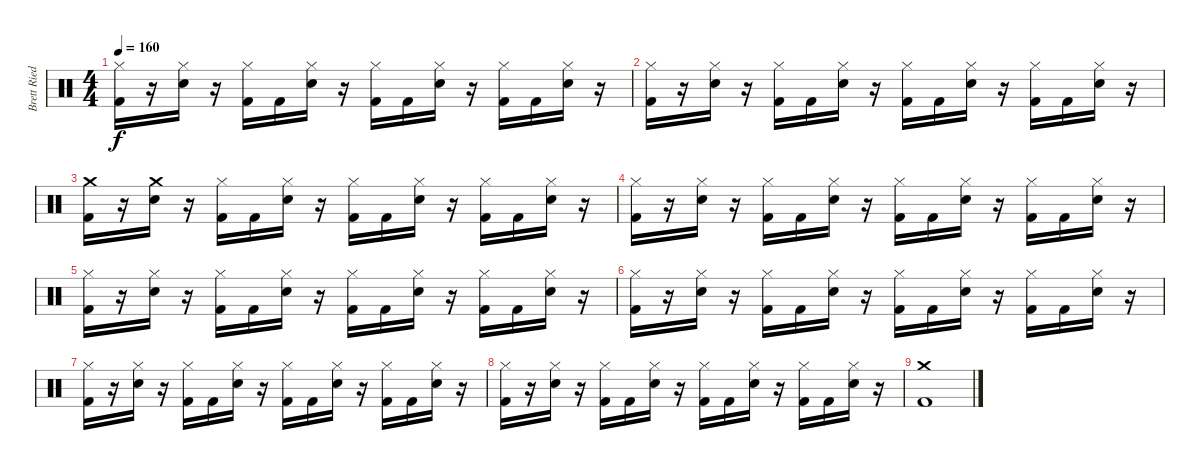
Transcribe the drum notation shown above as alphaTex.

\track ("Brett Ried" "Brett Ried") {instrument percussion}
\staff {score}
\articulation defaults
\ts (4 4)
\tempo 160
\clef neutral
\ks c
("Hi-Hat (closed)" "Kick (hit) 2").16{dy f} r.16 ("Hi-Hat (closed)" "Snare (hit) 2").16 r.16 ("Hi-Hat (closed)" "Kick (hit) 2").16 "Kick (hit) 2".16 ("Hi-Hat (closed)" "Snare (hit) 2").16 r.16 ("Hi-Hat (closed)" "Kick (hit) 2").16 "Kick (hit) 2".16 ("Hi-Hat (closed)" "Snare (hit) 2").16 r.16 ("Hi-Hat (closed)" "Kick (hit) 2").16 "Kick (hit) 2".16 ("Hi-Hat (closed)" "Snare (hit) 2").16 r.16 |
("Hi-Hat (closed)" "Kick (hit) 2").16 r.16 ("Hi-Hat (closed)" "Snare (hit) 2").16 r.16 ("Hi-Hat (closed)" "Kick (hit) 2").16 "Kick (hit) 2".16 ("Hi-Hat (closed)" "Snare (hit) 2").16 r.16 ("Hi-Hat (closed)" "Kick (hit) 2").16 "Kick (hit) 2".16 ("Hi-Hat (closed)" "Snare (hit) 2").16 r.16 ("Hi-Hat (closed)" "Kick (hit) 2").16 "Kick (hit) 2".16 ("Hi-Hat (closed)" "Snare (hit) 2").16 r.16 |
("Crash medium (hit)" "Kick (hit) 2").16 r.16 ("Crash medium (hit)" "Snare (hit) 2").16 r.16 ("Hi-Hat (closed)" "Kick (hit) 2").16 "Kick (hit) 2".16 ("Hi-Hat (closed)" "Snare (hit) 2").16 r.16 ("Hi-Hat (closed)" "Kick (hit) 2").16 "Kick (hit) 2".16 ("Hi-Hat (closed)" "Snare (hit) 2").16 r.16 ("Hi-Hat (closed)" "Kick (hit) 2").16 "Kick (hit) 2".16 ("Hi-Hat (closed)" "Snare (hit) 2").16 r.16 |
("Hi-Hat (closed)" "Kick (hit) 2").16 r.16 ("Hi-Hat (closed)" "Snare (hit) 2").16 r.16 ("Hi-Hat (closed)" "Kick (hit) 2").16 "Kick (hit) 2".16 ("Hi-Hat (closed)" "Snare (hit) 2").16 r.16 ("Hi-Hat (closed)" "Kick (hit) 2").16 "Kick (hit) 2".16 ("Hi-Hat (closed)" "Snare (hit) 2").16 r.16 ("Hi-Hat (closed)" "Kick (hit) 2").16 "Kick (hit) 2".16 ("Hi-Hat (closed)" "Snare (hit) 2").16 r.16 |
("Hi-Hat (closed)" "Kick (hit) 2").16 r.16 ("Hi-Hat (closed)" "Snare (hit) 2").16 r.16 ("Hi-Hat (closed)" "Kick (hit) 2").16 "Kick (hit) 2".16 ("Hi-Hat (closed)" "Snare (hit) 2").16 r.16 ("Hi-Hat (closed)" "Kick (hit) 2").16 "Kick (hit) 2".16 ("Hi-Hat (closed)" "Snare (hit) 2").16 r.16 ("Hi-Hat (closed)" "Kick (hit) 2").16 "Kick (hit) 2".16 ("Hi-Hat (closed)" "Snare (hit) 2").16 r.16 |
("Hi-Hat (closed)" "Kick (hit) 2").16 r.16 ("Hi-Hat (closed)" "Snare (hit) 2").16 r.16 ("Hi-Hat (closed)" "Kick (hit) 2").16 "Kick (hit) 2".16 ("Hi-Hat (closed)" "Snare (hit) 2").16 r.16 ("Hi-Hat (closed)" "Kick (hit) 2").16 "Kick (hit) 2".16 ("Hi-Hat (closed)" "Snare (hit) 2").16 r.16 ("Hi-Hat (closed)" "Kick (hit) 2").16 "Kick (hit) 2".16 ("Hi-Hat (closed)" "Snare (hit) 2").16 r.16 |
("Hi-Hat (closed)" "Kick (hit) 2").16 r.16 ("Hi-Hat (closed)" "Snare (hit) 2").16 r.16 ("Hi-Hat (closed)" "Kick (hit) 2").16 "Kick (hit) 2".16 ("Hi-Hat (closed)" "Snare (hit) 2").16 r.16 ("Hi-Hat (closed)" "Kick (hit) 2").16 "Kick (hit) 2".16 ("Hi-Hat (closed)" "Snare (hit) 2").16 r.16 ("Hi-Hat (closed)" "Kick (hit) 2").16 "Kick (hit) 2".16 ("Hi-Hat (closed)" "Snare (hit) 2").16 r.16 |
("Hi-Hat (closed)" "Kick (hit) 2").16 r.16 ("Hi-Hat (closed)" "Snare (hit) 2").16 r.16 ("Hi-Hat (closed)" "Kick (hit) 2").16 "Kick (hit) 2".16 ("Hi-Hat (closed)" "Snare (hit) 2").16 r.16 ("Hi-Hat (closed)" "Kick (hit) 2").16 "Kick (hit) 2".16 ("Hi-Hat (closed)" "Snare (hit) 2").16 r.16 ("Hi-Hat (closed)" "Kick (hit) 2").16 "Kick (hit) 2".16 ("Hi-Hat (closed)" "Snare (hit) 2").16 r.16 |
("Crash medium (hit)" "Kick (hit) 2").1
